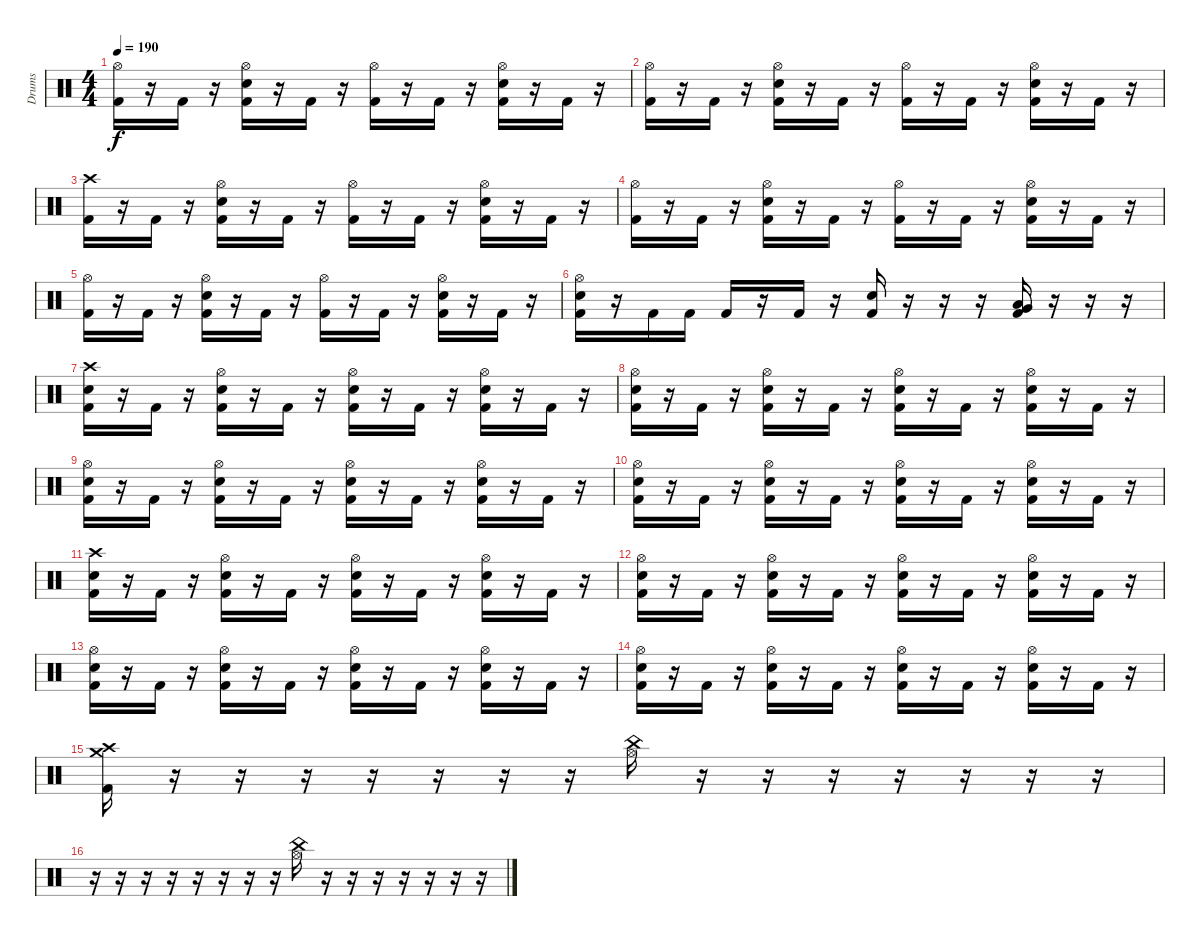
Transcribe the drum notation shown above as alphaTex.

\track ("Drums" "Drums") {instrument percussion}
\staff {score}
\articulation defaults
\ts (4 4)
\tempo 190
\clef neutral
\ks c
("Hi-Hat (open)" "Kick (hit) 2").16{dy f} r.16 "Kick (hit) 2".16 r.16 ("Hi-Hat (open)" "Electric Snare (hit)" "Kick (hit) 2").16 r.16 "Kick (hit) 2".16 r.16 ("Hi-Hat (open)" "Kick (hit) 2").16 r.16 "Kick (hit) 2".16 r.16 ("Hi-Hat (open)" "Electric Snare (hit)" "Kick (hit) 2").16 r.16 "Kick (hit) 2".16 r.16 |
("Hi-Hat (open)" "Kick (hit) 2").16 r.16 "Kick (hit) 2".16 r.16 ("Hi-Hat (open)" "Electric Snare (hit)" "Kick (hit) 2").16 r.16 "Kick (hit) 2".16 r.16 ("Hi-Hat (open)" "Kick (hit) 2").16 r.16 "Kick (hit) 2".16 r.16 ("Hi-Hat (open)" "Electric Snare (hit)" "Kick (hit) 2").16 r.16 "Kick (hit) 2".16 r.16 |
("Crash high (hit)" "Kick (hit) 2").16 r.16 "Kick (hit) 2".16 r.16 ("Hi-Hat (open)" "Electric Snare (hit)" "Kick (hit) 2").16 r.16 "Kick (hit) 2".16 r.16 ("Hi-Hat (open)" "Kick (hit) 2").16 r.16 "Kick (hit) 2".16 r.16 ("Hi-Hat (open)" "Electric Snare (hit)" "Kick (hit) 2").16 r.16 "Kick (hit) 2".16 r.16 |
("Hi-Hat (open)" "Kick (hit) 2").16 r.16 "Kick (hit) 2".16 r.16 ("Hi-Hat (open)" "Electric Snare (hit)" "Kick (hit) 2").16 r.16 "Kick (hit) 2".16 r.16 ("Hi-Hat (open)" "Kick (hit) 2").16 r.16 "Kick (hit) 2".16 r.16 ("Hi-Hat (open)" "Electric Snare (hit)" "Kick (hit) 2").16 r.16 "Kick (hit) 2".16 r.16 |
("Hi-Hat (open)" "Kick (hit) 2").16 r.16 "Kick (hit) 2".16 r.16 ("Hi-Hat (open)" "Electric Snare (hit)" "Kick (hit) 2").16 r.16 "Kick (hit) 2".16 r.16 ("Hi-Hat (open)" "Kick (hit) 2").16 r.16 "Kick (hit) 2".16 r.16 ("Hi-Hat (open)" "Electric Snare (hit)" "Kick (hit) 2").16 r.16 "Kick (hit) 2".16 r.16 |
("Hi-Hat (open)" "Electric Snare (hit)" "Kick (hit) 2").16 r.16 "Kick (hit) 2".16 "Kick (hit) 2".16 "Kick (hit) 2".16 r.16 "Kick (hit) 2".16 r.16 ("Electric Snare (hit)" "Kick (hit) 2").16 r.16 r.16 r.16 ("Low Tom (hit)" "Very Low Tom (hit)" "Kick (hit) 2").16 r.16 r.16 r.16 |
("Crash high (hit)" "Electric Snare (hit)" "Kick (hit) 2").16 r.16 "Kick (hit) 2".16 r.16 ("Hi-Hat (open)" "Electric Snare (hit)" "Kick (hit) 2").16 r.16 "Kick (hit) 2".16 r.16 ("Hi-Hat (open)" "Electric Snare (hit)" "Kick (hit) 2").16 r.16 "Kick (hit) 2".16 r.16 ("Hi-Hat (open)" "Electric Snare (hit)" "Kick (hit) 2").16 r.16 "Kick (hit) 2".16 r.16 |
("Hi-Hat (open)" "Electric Snare (hit)" "Kick (hit) 2").16 r.16 "Kick (hit) 2".16 r.16 ("Hi-Hat (open)" "Electric Snare (hit)" "Kick (hit) 2").16 r.16 "Kick (hit) 2".16 r.16 ("Hi-Hat (open)" "Electric Snare (hit)" "Kick (hit) 2").16 r.16 "Kick (hit) 2".16 r.16 ("Hi-Hat (open)" "Electric Snare (hit)" "Kick (hit) 2").16 r.16 "Kick (hit) 2".16 r.16 |
("Hi-Hat (open)" "Electric Snare (hit)" "Kick (hit) 2").16 r.16 "Kick (hit) 2".16 r.16 ("Hi-Hat (open)" "Electric Snare (hit)" "Kick (hit) 2").16 r.16 "Kick (hit) 2".16 r.16 ("Hi-Hat (open)" "Electric Snare (hit)" "Kick (hit) 2").16 r.16 "Kick (hit) 2".16 r.16 ("Hi-Hat (open)" "Electric Snare (hit)" "Kick (hit) 2").16 r.16 "Kick (hit) 2".16 r.16 |
("Hi-Hat (open)" "Electric Snare (hit)" "Kick (hit) 2").16 r.16 "Kick (hit) 2".16 r.16 ("Hi-Hat (open)" "Electric Snare (hit)" "Kick (hit) 2").16 r.16 "Kick (hit) 2".16 r.16 ("Hi-Hat (open)" "Electric Snare (hit)" "Kick (hit) 2").16 r.16 "Kick (hit) 2".16 r.16 ("Hi-Hat (open)" "Electric Snare (hit)" "Kick (hit) 2").16 r.16 "Kick (hit) 2".16 r.16 |
("Crash high (hit)" "Electric Snare (hit)" "Kick (hit) 2").16 r.16 "Kick (hit) 2".16 r.16 ("Hi-Hat (open)" "Electric Snare (hit)" "Kick (hit) 2").16 r.16 "Kick (hit) 2".16 r.16 ("Hi-Hat (open)" "Electric Snare (hit)" "Kick (hit) 2").16 r.16 "Kick (hit) 2".16 r.16 ("Hi-Hat (open)" "Electric Snare (hit)" "Kick (hit) 2").16 r.16 "Kick (hit) 2".16 r.16 |
("Hi-Hat (open)" "Electric Snare (hit)" "Kick (hit) 2").16 r.16 "Kick (hit) 2".16 r.16 ("Hi-Hat (open)" "Electric Snare (hit)" "Kick (hit) 2").16 r.16 "Kick (hit) 2".16 r.16 ("Hi-Hat (open)" "Electric Snare (hit)" "Kick (hit) 2").16 r.16 "Kick (hit) 2".16 r.16 ("Hi-Hat (open)" "Electric Snare (hit)" "Kick (hit) 2").16 r.16 "Kick (hit) 2".16 r.16 |
("Hi-Hat (open)" "Electric Snare (hit)" "Kick (hit) 2").16 r.16 "Kick (hit) 2".16 r.16 ("Hi-Hat (open)" "Electric Snare (hit)" "Kick (hit) 2").16 r.16 "Kick (hit) 2".16 r.16 ("Hi-Hat (open)" "Electric Snare (hit)" "Kick (hit) 2").16 r.16 "Kick (hit) 2".16 r.16 ("Hi-Hat (open)" "Electric Snare (hit)" "Kick (hit) 2").16 r.16 "Kick (hit) 2".16 r.16 |
("Hi-Hat (open)" "Electric Snare (hit)" "Kick (hit) 2").16 r.16 "Kick (hit) 2".16 r.16 ("Hi-Hat (open)" "Electric Snare (hit)" "Kick (hit) 2").16 r.16 "Kick (hit) 2".16 r.16 ("Hi-Hat (open)" "Electric Snare (hit)" "Kick (hit) 2").16 r.16 "Kick (hit) 2".16 r.16 ("Hi-Hat (open)" "Electric Snare (hit)" "Kick (hit) 2").16 r.16 "Kick (hit) 2".16 r.16 |
("Crash high (hit)" "Crash medium (hit)" "Kick (hit) 2").16 r.16 r.16 r.16 r.16 r.16 r.16 r.16 ("China (hit)" "Hi-Hat (open)").16 r.16 r.16 r.16 r.16 r.16 r.16 r.16 |
r.16 r.16 r.16 r.16 r.16 r.16 r.16 r.16 ("China (hit)" "Hi-Hat (open)").16 r.16 r.16 r.16 r.16 r.16 r.16 r.16
